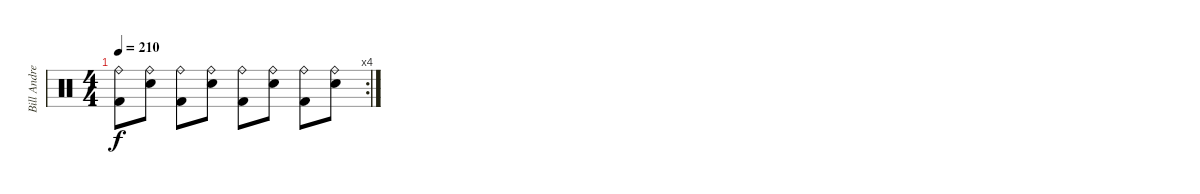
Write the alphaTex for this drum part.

\track ("Bill Andrews" "Bill Andre") {instrument percussion}
\staff {score}
\articulation defaults
\rc 4
\ts (4 4)
\tempo 210
\clef neutral
\ks c
("Ride (bell)" "Kick (hit) 2").8{dy f} ("Ride (bell)" "Snare (hit) 2").8 ("Ride (bell)" "Kick (hit) 2").8 ("Ride (bell)" "Snare (hit) 2").8 ("Ride (bell)" "Kick (hit) 2").8 ("Ride (bell)" "Snare (hit) 2").8 ("Ride (bell)" "Kick (hit) 2").8 ("Ride (bell)" "Snare (hit) 2").8
